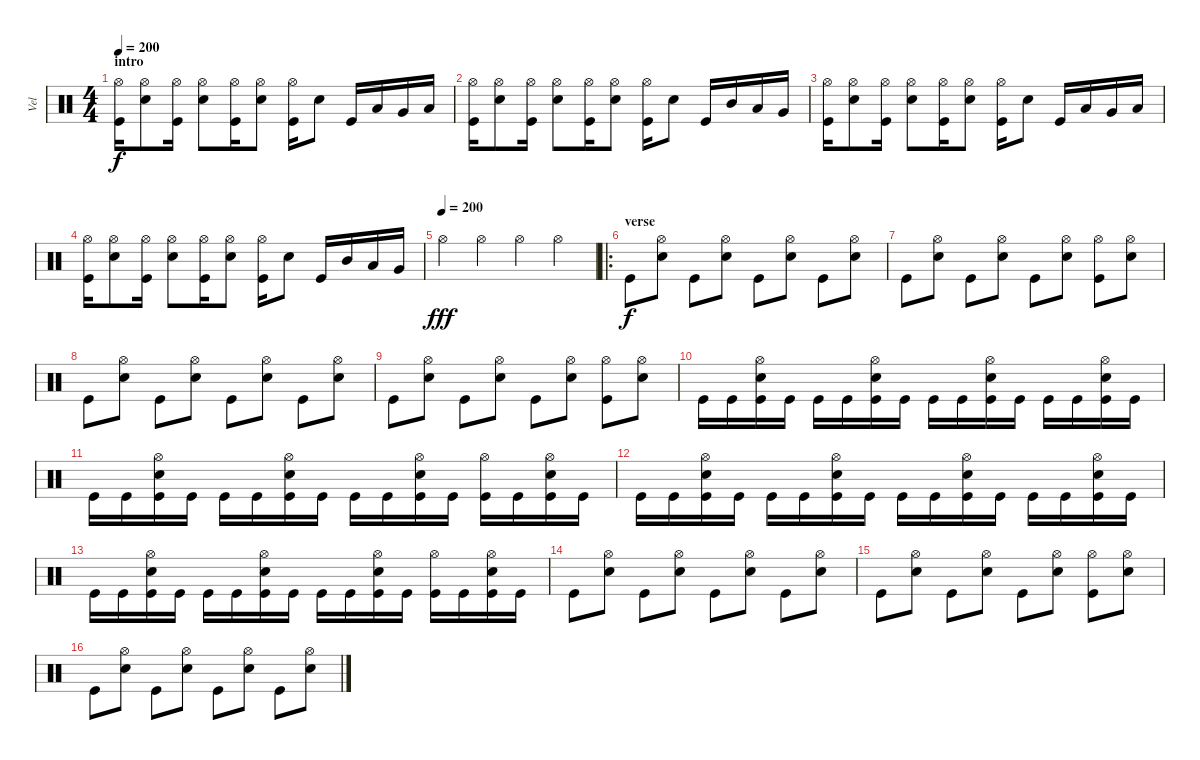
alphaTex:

\track ("Vel" "Vel") {instrument percussion}
\staff {score}
\articulation defaults
\ts (4 4)
\section ("" "intro")
\tempo 200
\tempo 80
\tempo 200
\clef neutral
\ks c
("Hi-Hat (open)" "Kick (hit)").16{dy f} ("Hi-Hat (open)" "Electric Snare (hit)").8 ("Hi-Hat (open)" "Kick (hit)").16 ("Hi-Hat (open)" "Electric Snare (hit)").8 ("Hi-Hat (open)" "Kick (hit)").16 ("Hi-Hat (open)" "Electric Snare (hit)").8 ("Hi-Hat (open)" "Kick (hit)").16 "Electric Snare (hit)".8 "Kick (hit)".16 "Low Tom (hit)".16 "Very Low Tom (hit)".16 "Low Floor Tom (hit)".16 |
("Hi-Hat (open)" "Kick (hit)").16 ("Hi-Hat (open)" "Electric Snare (hit)").8 ("Hi-Hat (open)" "Kick (hit)").16 ("Hi-Hat (open)" "Electric Snare (hit)").8 ("Hi-Hat (open)" "Kick (hit)").16 ("Hi-Hat (open)" "Electric Snare (hit)").8 ("Hi-Hat (open)" "Kick (hit)").16 "Electric Snare (hit)".8 "Kick (hit)".16 "Mid Tom (hit)".16 "Low Tom (hit)".16 "Very Low Tom (hit)".16 |
("Hi-Hat (open)" "Kick (hit)").16 ("Hi-Hat (open)" "Electric Snare (hit)").8 ("Hi-Hat (open)" "Kick (hit)").16 ("Hi-Hat (open)" "Electric Snare (hit)").8 ("Hi-Hat (open)" "Kick (hit)").16 ("Hi-Hat (open)" "Electric Snare (hit)").8 ("Hi-Hat (open)" "Kick (hit)").16 "Electric Snare (hit)".8 "Kick (hit)".16 "Low Tom (hit)".16 "Very Low Tom (hit)".16 "Low Floor Tom (hit)".16 |
("Hi-Hat (open)" "Kick (hit)").16 ("Hi-Hat (open)" "Electric Snare (hit)").8 ("Hi-Hat (open)" "Kick (hit)").16 ("Hi-Hat (open)" "Electric Snare (hit)").8 ("Hi-Hat (open)" "Kick (hit)").16 ("Hi-Hat (open)" "Electric Snare (hit)").8 ("Hi-Hat (open)" "Kick (hit)").16 "Electric Snare (hit)".8 "Kick (hit)".16 "Mid Tom (hit)".16 "Low Tom (hit)".16 "Very Low Tom (hit)".16 |
\tempo (200)
"Hi-Hat (open)".4{dy fff} "Hi-Hat (open)".4 "Hi-Hat (open)".4 "Hi-Hat (open)".4 |
\ro
\section ("" "verse")
"Kick (hit)".8{dy f} ("Hi-Hat (open)" "Electric Snare (hit)").8 "Kick (hit)".8 ("Hi-Hat (open)" "Electric Snare (hit)").8 "Kick (hit)".8 ("Hi-Hat (open)" "Electric Snare (hit)").8 "Kick (hit)".8 ("Hi-Hat (open)" "Electric Snare (hit)").8 |
"Kick (hit)".8 ("Hi-Hat (open)" "Electric Snare (hit)").8 "Kick (hit)".8 ("Hi-Hat (open)" "Electric Snare (hit)").8 "Kick (hit)".8 ("Hi-Hat (open)" "Electric Snare (hit)").8 ("Hi-Hat (open)" "Kick (hit)").8 ("Hi-Hat (open)" "Electric Snare (hit)").8 |
"Kick (hit)".8 ("Hi-Hat (open)" "Electric Snare (hit)").8 "Kick (hit)".8 ("Hi-Hat (open)" "Electric Snare (hit)").8 "Kick (hit)".8 ("Hi-Hat (open)" "Electric Snare (hit)").8 "Kick (hit)".8 ("Hi-Hat (open)" "Electric Snare (hit)").8 |
"Kick (hit)".8 ("Hi-Hat (open)" "Electric Snare (hit)").8 "Kick (hit)".8 ("Hi-Hat (open)" "Electric Snare (hit)").8 "Kick (hit)".8 ("Hi-Hat (open)" "Electric Snare (hit)").8 ("Hi-Hat (open)" "Kick (hit)").8 ("Hi-Hat (open)" "Electric Snare (hit)").8 |
"Kick (hit)".16 "Kick (hit)".16 ("Hi-Hat (open)" "Electric Snare (hit)" "Kick (hit)").16 "Kick (hit)".16 "Kick (hit)".16 "Kick (hit)".16 ("Hi-Hat (open)" "Electric Snare (hit)" "Kick (hit)").16 "Kick (hit)".16 "Kick (hit)".16 "Kick (hit)".16 ("Hi-Hat (open)" "Electric Snare (hit)" "Kick (hit)").16 "Kick (hit)".16 "Kick (hit)".16 "Kick (hit)".16 ("Hi-Hat (open)" "Electric Snare (hit)" "Kick (hit)").16 "Kick (hit)".16 |
"Kick (hit)".16 "Kick (hit)".16 ("Hi-Hat (open)" "Electric Snare (hit)" "Kick (hit)").16 "Kick (hit)".16 "Kick (hit)".16 "Kick (hit)".16 ("Hi-Hat (open)" "Electric Snare (hit)" "Kick (hit)").16 "Kick (hit)".16 "Kick (hit)".16 "Kick (hit)".16 ("Hi-Hat (open)" "Electric Snare (hit)" "Kick (hit)").16 "Kick (hit)".16 ("Hi-Hat (open)" "Kick (hit)").16 "Kick (hit)".16 ("Hi-Hat (open)" "Electric Snare (hit)" "Kick (hit)").16 "Kick (hit)".16 |
"Kick (hit)".16 "Kick (hit)".16 ("Hi-Hat (open)" "Electric Snare (hit)" "Kick (hit)").16 "Kick (hit)".16 "Kick (hit)".16 "Kick (hit)".16 ("Hi-Hat (open)" "Electric Snare (hit)" "Kick (hit)").16 "Kick (hit)".16 "Kick (hit)".16 "Kick (hit)".16 ("Hi-Hat (open)" "Electric Snare (hit)" "Kick (hit)").16 "Kick (hit)".16 "Kick (hit)".16 "Kick (hit)".16 ("Hi-Hat (open)" "Electric Snare (hit)" "Kick (hit)").16 "Kick (hit)".16 |
"Kick (hit)".16 "Kick (hit)".16 ("Hi-Hat (open)" "Electric Snare (hit)" "Kick (hit)").16 "Kick (hit)".16 "Kick (hit)".16 "Kick (hit)".16 ("Hi-Hat (open)" "Electric Snare (hit)" "Kick (hit)").16 "Kick (hit)".16 "Kick (hit)".16 "Kick (hit)".16 ("Hi-Hat (open)" "Electric Snare (hit)" "Kick (hit)").16 "Kick (hit)".16 ("Hi-Hat (open)" "Kick (hit)").16 "Kick (hit)".16 ("Hi-Hat (open)" "Electric Snare (hit)" "Kick (hit)").16 "Kick (hit)".16 |
"Kick (hit)".8 ("Hi-Hat (open)" "Electric Snare (hit)").8 "Kick (hit)".8 ("Hi-Hat (open)" "Electric Snare (hit)").8 "Kick (hit)".8 ("Hi-Hat (open)" "Electric Snare (hit)").8 "Kick (hit)".8 ("Hi-Hat (open)" "Electric Snare (hit)").8 |
"Kick (hit)".8 ("Hi-Hat (open)" "Electric Snare (hit)").8 "Kick (hit)".8 ("Hi-Hat (open)" "Electric Snare (hit)").8 "Kick (hit)".8 ("Hi-Hat (open)" "Electric Snare (hit)").8 ("Hi-Hat (open)" "Kick (hit)").8 ("Hi-Hat (open)" "Electric Snare (hit)").8 |
"Kick (hit)".8 ("Hi-Hat (open)" "Electric Snare (hit)").8 "Kick (hit)".8 ("Hi-Hat (open)" "Electric Snare (hit)").8 "Kick (hit)".8 ("Hi-Hat (open)" "Electric Snare (hit)").8 "Kick (hit)".8 ("Hi-Hat (open)" "Electric Snare (hit)").8
